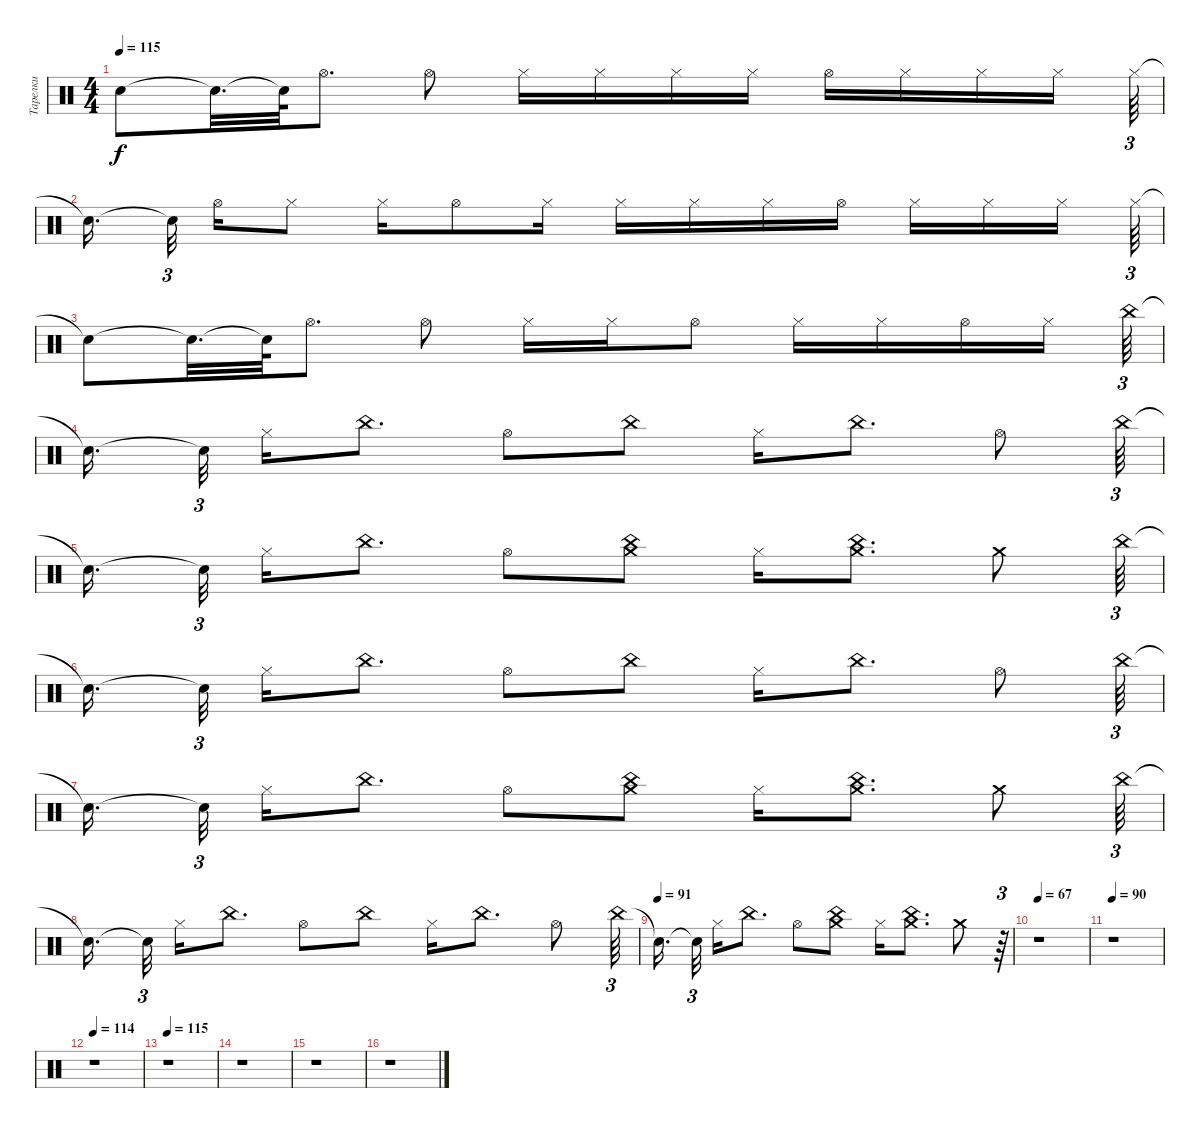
\track ("Тарелки" "Тарелки") {instrument percussion}
\staff {score}
\articulation defaults
\ts (4 4)
\tempo 115
\clef neutral
\ks c "Snare (hit)"{t}.8{dy f} "Snare (hit)"{t}.32{d} "Snare (hit)"{t}.64 "Hi-Hat (open)".8{d} "Hi-Hat (open)".8 "Hi-Hat (closed)".16 "Hi-Hat (closed)".16 "Hi-Hat (closed)".16 "Hi-Hat (closed)".16 "Hi-Hat (open)".16 "Hi-Hat (closed)".16 "Hi-Hat (closed)".16 "Hi-Hat (closed)".16 "Hi-Hat (closed)".64{tu (3 2)}
|
"Snare (hit)"{t}.16{d beam splitsecondary} "Snare (hit)"{t}.32{tu (3 2) beam splitsecondary} "Hi-Hat (open)".16 "Hi-Hat (closed)".8 "Hi-Hat (closed)".16 "Hi-Hat (open)".8 "Hi-Hat (closed)".16 "Hi-Hat (closed)".16 "Hi-Hat (closed)".16 "Hi-Hat (closed)".16 "Hi-Hat (open)".16 "Hi-Hat (closed)".16 "Hi-Hat (closed)".16 "Hi-Hat (closed)".16{beam splitsecondary} "Hi-Hat (closed)".64{tu (3 2)} |
"Snare (hit)"{t}.8 "Snare (hit)"{t}.32{d} "Snare (hit)"{t}.64 "Hi-Hat (open)".8{d} "Hi-Hat (open)".8 "Hi-Hat (closed)".16 "Hi-Hat (closed)".16 "Hi-Hat (open)".8 "Hi-Hat (closed)".16 "Hi-Hat (closed)".16 "Hi-Hat (open)".16 "Hi-Hat (closed)".16 "China (hit)".64{tu (3 2)} |
"Snare (hit)"{t}.16{d beam splitsecondary} "Snare (hit)"{t}.32{tu (3 2) beam splitsecondary} "Hi-Hat (closed)".16 "China (hit)".8{d} "Hi-Hat (open)".8 "China (hit)".8 "Hi-Hat (closed)".16 "China (hit)".8{d} "Hi-Hat (open)".8 "China (hit)".64{tu (3 2)} |
"Snare (hit)"{t}.16{d beam splitsecondary} "Snare (hit)"{t}.32{tu (3 2) beam splitsecondary} "Hi-Hat (closed)".16 "China (hit)".8{d} "Hi-Hat (open)".8 ("China (hit)" "Crash medium (hit)").8 "Hi-Hat (closed)".16 ("China (hit)" "Crash medium (hit)").8{d} "Crash medium (hit)".8 "China (hit)".64{tu (3 2)} |
"Snare (hit)"{t}.16{d beam splitsecondary} "Snare (hit)"{t}.32{tu (3 2) beam splitsecondary} "Hi-Hat (closed)".16 "China (hit)".8{d} "Hi-Hat (open)".8 "China (hit)".8 "Hi-Hat (closed)".16 "China (hit)".8{d} "Hi-Hat (open)".8 "China (hit)".64{tu (3 2)} |
"Snare (hit)"{t}.16{d beam splitsecondary} "Snare (hit)"{t}.32{tu (3 2) beam splitsecondary} "Hi-Hat (closed)".16 "China (hit)".8{d} "Hi-Hat (open)".8 ("China (hit)" "Crash medium (hit)").8 "Hi-Hat (closed)".16 ("China (hit)" "Crash medium (hit)").8{d} "Crash medium (hit)".8 "China (hit)".64{tu (3 2)} |
"Snare (hit)"{t}.16{d beam splitsecondary} "Snare (hit)"{t}.32{tu (3 2) beam splitsecondary} "Hi-Hat (closed)".16 "China (hit)".8{d} "Hi-Hat (open)".8 "China (hit)".8 "Hi-Hat (closed)".16 "China (hit)".8{d} "Hi-Hat (open)".8 "China (hit)".64{tu (3 2)} |
\tempo (91)
"Snare (hit)"{t}.16{d beam splitsecondary} "Snare (hit)"{t}.32{tu (3 2) beam splitsecondary} "Hi-Hat (closed)".16 "China (hit)".8{d} "Hi-Hat (open)".8 ("China (hit)" "Crash medium (hit)").8 "Hi-Hat (closed)".16 ("China (hit)" "Crash medium (hit)").8{d} "Crash medium (hit)".8 r.64{tu (3 2)} |
\tempo 67
r.1 |
\tempo 90
r.1 |
\tempo 114
r.1 |
\tempo 115
r.1 |
r.1 |
r.1 |
r.1
